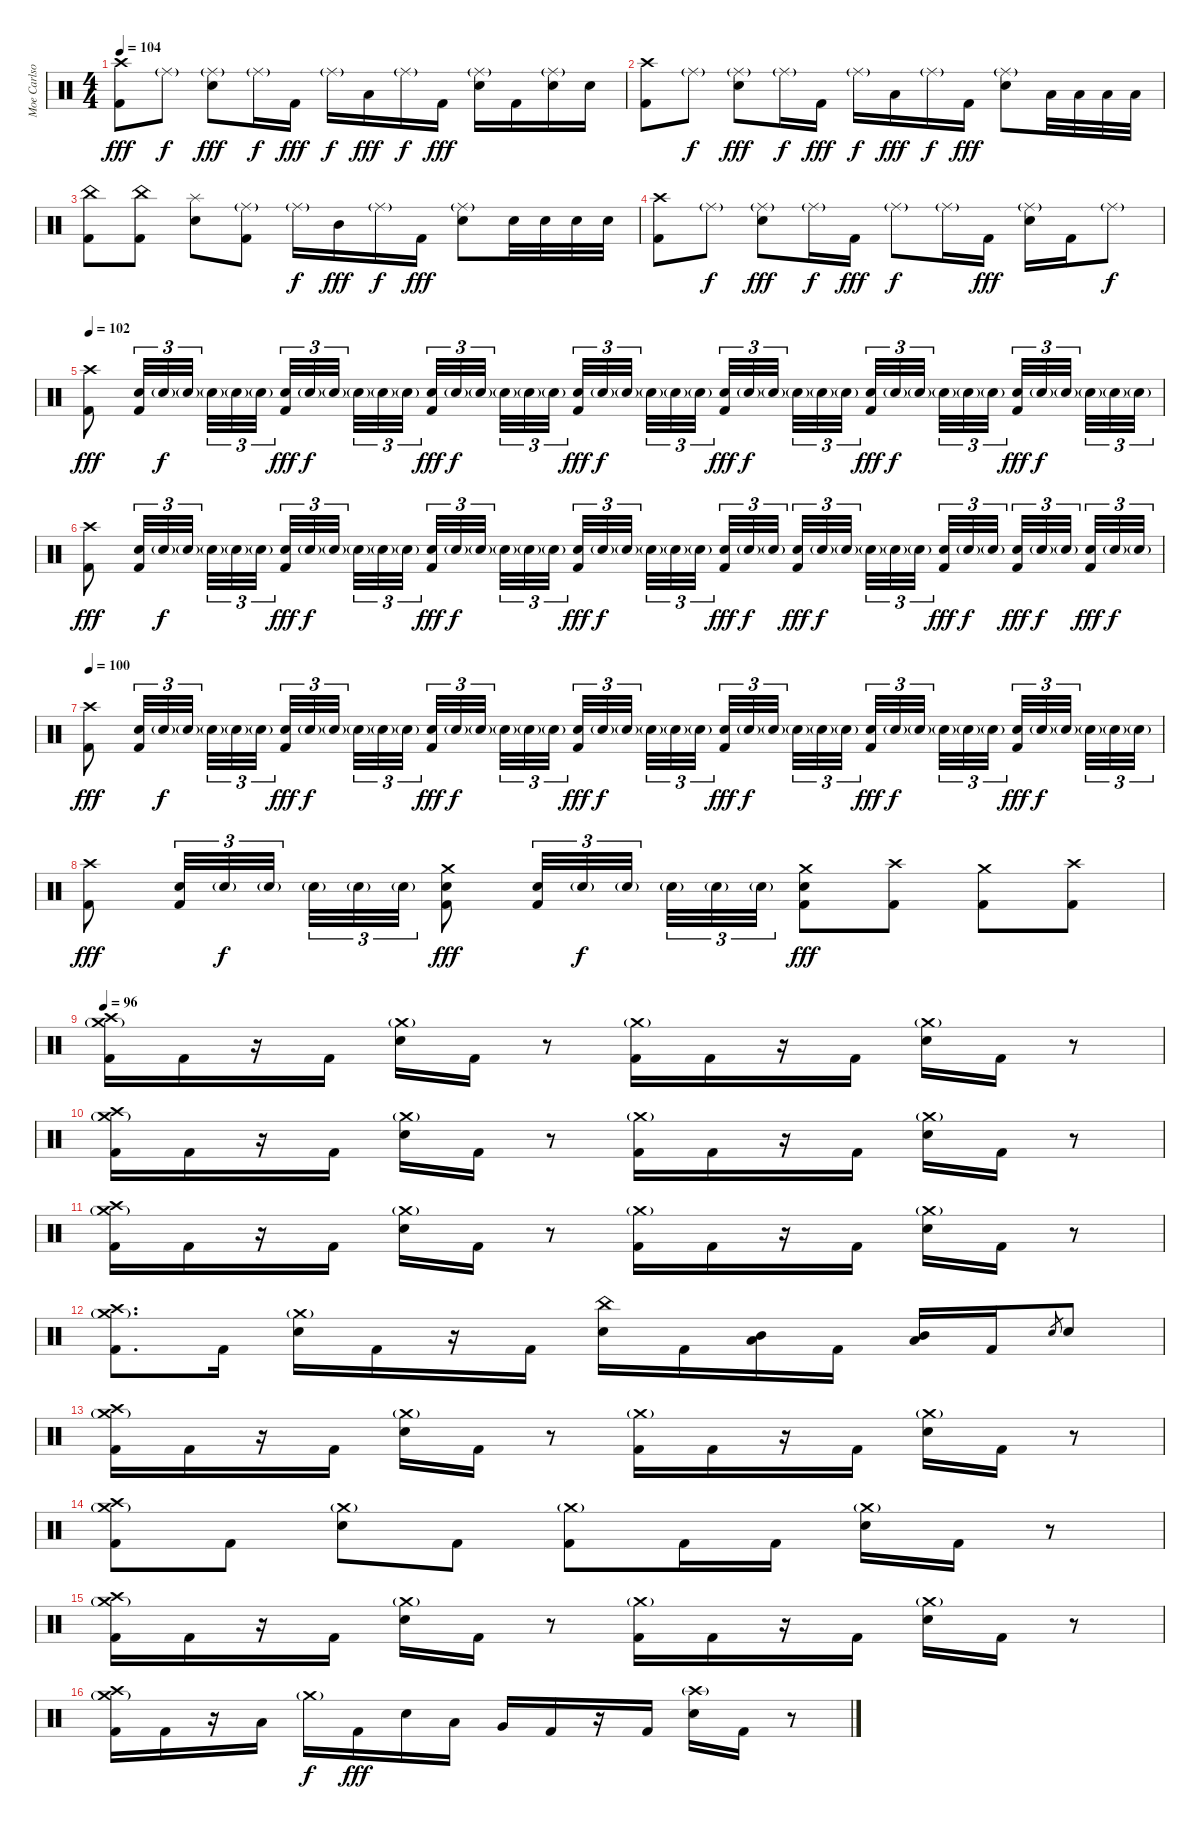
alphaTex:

\track ("Moe Carlson - Percussion" "Moe Carlso") {instrument percussion}
\staff {score}
\articulation defaults
\ts (4 4)
\tempo 104
\clef neutral
\ks c
("Crash high (hit)" "Kick (hit) 2").8{dy fff} "Ride (middle)"{g}.8{dy f} ("Ride (middle)"{g} "Electric Snare (hit)").8{dy fff} "Ride (middle)"{g}.16{dy f} "Kick (hit) 2".16{dy fff} "Ride (middle)"{g}.16{dy f} "Low Tom (hit)".16{dy fff} "Ride (middle)"{g}.16{dy f} "Kick (hit) 2".16{dy fff} ("Ride (middle)"{g} "Electric Snare (hit)").16 "Kick (hit) 2".16 ("Ride (middle)"{g} "Electric Snare (hit)").16 "Electric Snare (hit)".16 |
("Crash high (hit)" "Kick (hit) 2").8 "Ride (middle)"{g}.8{dy f} ("Ride (middle)"{g} "Electric Snare (hit)").8{dy fff} "Ride (middle)"{g}.16{dy f} "Kick (hit) 2".16{dy fff} "Ride (middle)"{g}.16{dy f} "Low Tom (hit)".16{dy fff} "Ride (middle)"{g}.16{dy f} "Kick (hit) 2".16{dy fff} ("Ride (middle)"{g} "Electric Snare (hit)").8 "Low Tom (hit)".32 "Low Tom (hit)".32 "Low Tom (hit)".32 "Low Tom (hit)".32 |
("China (hit)" "Kick (hit) 2").8 ("China (hit)" "Kick (hit) 2").8 ("Splash (hit)" "Electric Snare (hit)").8 ("Ride (middle)"{g} "Kick (hit) 2").8 "Ride (middle)"{g}.16{dy f} "Mid Tom (hit)".16{dy fff} "Ride (middle)"{g}.16{dy f} "Kick (hit) 2".16{dy fff} ("Ride (middle)"{g} "Electric Snare (hit)").8 "Electric Snare (hit)".32 "Electric Snare (hit)".32 "Electric Snare (hit)".32 "Electric Snare (hit)".32 |
("Crash high (hit)" "Kick (hit) 2").8 "Ride (middle)"{g}.8{dy f} ("Ride (middle)"{g} "Electric Snare (hit)").8{dy fff} "Ride (middle)"{g}.16{dy f} "Kick (hit) 2".16{dy fff} "Ride (middle)"{g}.8{dy f} "Ride (middle)"{g}.16 "Kick (hit) 2".16{dy fff} ("Ride (middle)"{g} "Electric Snare (hit)").16 "Kick (hit) 2".16 "Ride (middle)"{g}.8{dy f} |
\tempo 102
("Crash high (hit)" "Kick (hit) 2").8{dy fff} ("Electric Snare (hit)" "Kick (hit) 2").32{tu (3 2)} "Electric Snare (hit)"{g}.32{tu (3 2) dy f} "Electric Snare (hit)"{g}.32{tu (3 2) beam splitsecondary} "Electric Snare (hit)"{g}.32{tu (3 2)} "Electric Snare (hit)"{g}.32{tu (3 2)} "Electric Snare (hit)"{g}.32{tu (3 2)} ("Electric Snare (hit)" "Kick (hit) 2").32{tu (3 2) dy fff} "Electric Snare (hit)"{g}.32{tu (3 2) dy f} "Electric Snare (hit)"{g}.32{tu (3 2) beam splitsecondary} "Electric Snare (hit)"{g}.32{tu (3 2)} "Electric Snare (hit)"{g}.32{tu (3 2)} "Electric Snare (hit)"{g}.32{tu (3 2) beam splitsecondary} ("Electric Snare (hit)" "Kick (hit) 2").32{tu (3 2) dy fff} "Electric Snare (hit)"{g}.32{tu (3 2) dy f} "Electric Snare (hit)"{g}.32{tu (3 2) beam splitsecondary} "Electric Snare (hit)"{g}.32{tu (3 2)} "Electric Snare (hit)"{g}.32{tu (3 2)} "Electric Snare (hit)"{g}.32{tu (3 2)} ("Electric Snare (hit)" "Kick (hit) 2").32{tu (3 2) dy fff} "Electric Snare (hit)"{g}.32{tu (3 2) dy f} "Electric Snare (hit)"{g}.32{tu (3 2) beam splitsecondary} "Electric Snare (hit)"{g}.32{tu (3 2)} "Electric Snare (hit)"{g}.32{tu (3 2)} "Electric Snare (hit)"{g}.32{tu (3 2) beam splitsecondary} ("Electric Snare (hit)" "Kick (hit) 2").32{tu (3 2) dy fff} "Electric Snare (hit)"{g}.32{tu (3 2) dy f} "Electric Snare (hit)"{g}.32{tu (3 2) beam splitsecondary} "Electric Snare (hit)"{g}.32{tu (3 2)} "Electric Snare (hit)"{g}.32{tu (3 2)} "Electric Snare (hit)"{g}.32{tu (3 2)} ("Electric Snare (hit)" "Kick (hit) 2").32{tu (3 2) dy fff} "Electric Snare (hit)"{g}.32{tu (3 2) dy f} "Electric Snare (hit)"{g}.32{tu (3 2) beam splitsecondary} "Electric Snare (hit)"{g}.32{tu (3 2)} "Electric Snare (hit)"{g}.32{tu (3 2)} "Electric Snare (hit)"{g}.32{tu (3 2) beam splitsecondary} ("Electric Snare (hit)" "Kick (hit) 2").32{tu (3 2) dy fff} "Electric Snare (hit)"{g}.32{tu (3 2) dy f} "Electric Snare (hit)"{g}.32{tu (3 2) beam splitsecondary} "Electric Snare (hit)"{g}.32{tu (3 2)} "Electric Snare (hit)"{g}.32{tu (3 2)} "Electric Snare (hit)"{g}.32{tu (3 2)} |
("Crash high (hit)" "Kick (hit) 2").8{dy fff} ("Electric Snare (hit)" "Kick (hit) 2").32{tu (3 2)} "Electric Snare (hit)"{g}.32{tu (3 2) dy f} "Electric Snare (hit)"{g}.32{tu (3 2) beam splitsecondary} "Electric Snare (hit)"{g}.32{tu (3 2)} "Electric Snare (hit)"{g}.32{tu (3 2)} "Electric Snare (hit)"{g}.32{tu (3 2)} ("Electric Snare (hit)" "Kick (hit) 2").32{tu (3 2) dy fff} "Electric Snare (hit)"{g}.32{tu (3 2) dy f} "Electric Snare (hit)"{g}.32{tu (3 2) beam splitsecondary} "Electric Snare (hit)"{g}.32{tu (3 2)} "Electric Snare (hit)"{g}.32{tu (3 2)} "Electric Snare (hit)"{g}.32{tu (3 2) beam splitsecondary} ("Electric Snare (hit)" "Kick (hit) 2").32{tu (3 2) dy fff} "Electric Snare (hit)"{g}.32{tu (3 2) dy f} "Electric Snare (hit)"{g}.32{tu (3 2) beam splitsecondary} "Electric Snare (hit)"{g}.32{tu (3 2)} "Electric Snare (hit)"{g}.32{tu (3 2)} "Electric Snare (hit)"{g}.32{tu (3 2)} ("Electric Snare (hit)" "Kick (hit) 2").32{tu (3 2) dy fff} "Electric Snare (hit)"{g}.32{tu (3 2) dy f} "Electric Snare (hit)"{g}.32{tu (3 2) beam splitsecondary} "Electric Snare (hit)"{g}.32{tu (3 2)} "Electric Snare (hit)"{g}.32{tu (3 2)} "Electric Snare (hit)"{g}.32{tu (3 2) beam splitsecondary} ("Electric Snare (hit)" "Kick (hit) 2").32{tu (3 2) dy fff} "Electric Snare (hit)"{g}.32{tu (3 2) dy f} "Electric Snare (hit)"{g}.32{tu (3 2) beam splitsecondary} ("Electric Snare (hit)" "Kick (hit) 2").32{tu (3 2) dy fff} "Electric Snare (hit)"{g}.32{tu (3 2) dy f} "Electric Snare (hit)"{g}.32{tu (3 2)} "Electric Snare (hit)"{g}.32{tu (3 2)} "Electric Snare (hit)"{g}.32{tu (3 2)} "Electric Snare (hit)"{g}.32{tu (3 2) beam splitsecondary} ("Electric Snare (hit)" "Kick (hit) 2").32{tu (3 2) dy fff} "Electric Snare (hit)"{g}.32{tu (3 2) dy f} "Electric Snare (hit)"{g}.32{tu (3 2) beam splitsecondary} ("Electric Snare (hit)" "Kick (hit) 2").32{tu (3 2) dy fff} "Electric Snare (hit)"{g}.32{tu (3 2) dy f} "Electric Snare (hit)"{g}.32{tu (3 2) beam splitsecondary} ("Electric Snare (hit)" "Kick (hit) 2").32{tu (3 2) dy fff} "Electric Snare (hit)"{g}.32{tu (3 2) dy f} "Electric Snare (hit)"{g}.32{tu (3 2)} |
\tempo 100
("Crash high (hit)" "Kick (hit) 2").8{dy fff} ("Electric Snare (hit)" "Kick (hit) 2").32{tu (3 2)} "Electric Snare (hit)"{g}.32{tu (3 2) dy f} "Electric Snare (hit)"{g}.32{tu (3 2) beam splitsecondary} "Electric Snare (hit)"{g}.32{tu (3 2)} "Electric Snare (hit)"{g}.32{tu (3 2)} "Electric Snare (hit)"{g}.32{tu (3 2)} ("Electric Snare (hit)" "Kick (hit) 2").32{tu (3 2) dy fff} "Electric Snare (hit)"{g}.32{tu (3 2) dy f} "Electric Snare (hit)"{g}.32{tu (3 2) beam splitsecondary} "Electric Snare (hit)"{g}.32{tu (3 2)} "Electric Snare (hit)"{g}.32{tu (3 2)} "Electric Snare (hit)"{g}.32{tu (3 2) beam splitsecondary} ("Electric Snare (hit)" "Kick (hit) 2").32{tu (3 2) dy fff} "Electric Snare (hit)"{g}.32{tu (3 2) dy f} "Electric Snare (hit)"{g}.32{tu (3 2) beam splitsecondary} "Electric Snare (hit)"{g}.32{tu (3 2)} "Electric Snare (hit)"{g}.32{tu (3 2)} "Electric Snare (hit)"{g}.32{tu (3 2)} ("Electric Snare (hit)" "Kick (hit) 2").32{tu (3 2) dy fff} "Electric Snare (hit)"{g}.32{tu (3 2) dy f} "Electric Snare (hit)"{g}.32{tu (3 2) beam splitsecondary} "Electric Snare (hit)"{g}.32{tu (3 2)} "Electric Snare (hit)"{g}.32{tu (3 2)} "Electric Snare (hit)"{g}.32{tu (3 2) beam splitsecondary} ("Electric Snare (hit)" "Kick (hit) 2").32{tu (3 2) dy fff} "Electric Snare (hit)"{g}.32{tu (3 2) dy f} "Electric Snare (hit)"{g}.32{tu (3 2) beam splitsecondary} "Electric Snare (hit)"{g}.32{tu (3 2)} "Electric Snare (hit)"{g}.32{tu (3 2)} "Electric Snare (hit)"{g}.32{tu (3 2)} ("Electric Snare (hit)" "Kick (hit) 2").32{tu (3 2) dy fff} "Electric Snare (hit)"{g}.32{tu (3 2) dy f} "Electric Snare (hit)"{g}.32{tu (3 2) beam splitsecondary} "Electric Snare (hit)"{g}.32{tu (3 2)} "Electric Snare (hit)"{g}.32{tu (3 2)} "Electric Snare (hit)"{g}.32{tu (3 2) beam splitsecondary} ("Electric Snare (hit)" "Kick (hit) 2").32{tu (3 2) dy fff} "Electric Snare (hit)"{g}.32{tu (3 2) dy f} "Electric Snare (hit)"{g}.32{tu (3 2) beam splitsecondary} "Electric Snare (hit)"{g}.32{tu (3 2)} "Electric Snare (hit)"{g}.32{tu (3 2)} "Electric Snare (hit)"{g}.32{tu (3 2)} |
("Crash high (hit)" "Kick (hit) 2").8{dy fff} ("Electric Snare (hit)" "Kick (hit) 2").32{tu (3 2)} "Electric Snare (hit)"{g}.32{tu (3 2) dy f} "Electric Snare (hit)"{g}.32{tu (3 2) beam splitsecondary} "Electric Snare (hit)"{g}.32{tu (3 2)} "Electric Snare (hit)"{g}.32{tu (3 2)} "Electric Snare (hit)"{g}.32{tu (3 2)} ("Crash medium (hit)" "Electric Snare (hit)" "Kick (hit) 2").8{dy fff} ("Electric Snare (hit)" "Kick (hit) 2").32{tu (3 2)} "Electric Snare (hit)"{g}.32{tu (3 2) dy f} "Electric Snare (hit)"{g}.32{tu (3 2) beam splitsecondary} "Electric Snare (hit)"{g}.32{tu (3 2)} "Electric Snare (hit)"{g}.32{tu (3 2)} "Electric Snare (hit)"{g}.32{tu (3 2)} ("Crash medium (hit)" "Electric Snare (hit)" "Kick (hit) 2").8{dy fff} ("Crash high (hit)" "Kick (hit) 2").8 ("Crash medium (hit)" "Kick (hit) 2").8 ("Crash high (hit)" "Kick (hit) 2").8 |
\tempo 96
("Crash medium (hit)"{g} "Crash high (hit)" "Kick (hit) 2").16 "Kick (hit) 2".16 r.16 "Kick (hit) 2".16 ("Crash medium (hit)"{g} "Electric Snare (hit)").16 "Kick (hit) 2".16 r.8 ("Crash medium (hit)"{g} "Kick (hit) 2").16 "Kick (hit) 2".16 r.16 "Kick (hit) 2".16 ("Crash medium (hit)"{g} "Electric Snare (hit)").16 "Kick (hit) 2".16 r.8 |
("Crash medium (hit)"{g} "Crash high (hit)" "Kick (hit) 2").16 "Kick (hit) 2".16 r.16 "Kick (hit) 2".16 ("Crash medium (hit)"{g} "Electric Snare (hit)").16 "Kick (hit) 2".16 r.8 ("Crash medium (hit)"{g} "Kick (hit) 2").16 "Kick (hit) 2".16 r.16 "Kick (hit) 2".16 ("Crash medium (hit)"{g} "Electric Snare (hit)").16 "Kick (hit) 2".16 r.8 |
("Crash medium (hit)"{g} "Crash high (hit)" "Kick (hit) 2").16 "Kick (hit) 2".16 r.16 "Kick (hit) 2".16 ("Crash medium (hit)"{g} "Electric Snare (hit)").16 "Kick (hit) 2".16 r.8 ("Crash medium (hit)"{g} "Kick (hit) 2").16 "Kick (hit) 2".16 r.16 "Kick (hit) 2".16 ("Crash medium (hit)"{g} "Electric Snare (hit)").16 "Kick (hit) 2".16 r.8 |
("Crash medium (hit)"{g} "Crash high (hit)" "Kick (hit) 2").8{d} "Kick (hit) 2".16 ("Crash medium (hit)"{g} "Electric Snare (hit)").16 "Kick (hit) 2".16 r.16 "Kick (hit) 2".16 ("China (hit)" "Electric Snare (hit)").16 "Kick (hit) 2".16 ("Mid Tom (hit)" "Low Floor Tom (hit)").16 "Kick (hit) 2".16 ("Mid Tom (hit)" "Low Floor Tom (hit)").16 "Kick (hit) 2".16 "Electric Snare (hit)".8{gr} "Electric Snare (hit)".8 |
("Crash medium (hit)"{g} "Crash high (hit)" "Kick (hit) 2").16 "Kick (hit) 2".16 r.16 "Kick (hit) 2".16 ("Crash medium (hit)"{g} "Electric Snare (hit)").16 "Kick (hit) 2".16 r.8 ("Crash medium (hit)"{g} "Kick (hit) 2").16 "Kick (hit) 2".16 r.16 "Kick (hit) 2".16 ("Crash medium (hit)"{g} "Electric Snare (hit)").16 "Kick (hit) 2".16 r.8 |
("Crash medium (hit)"{g} "Crash high (hit)" "Kick (hit) 2").8 "Kick (hit) 2".8 ("Crash medium (hit)"{g} "Electric Snare (hit)").8 "Kick (hit) 2".8 ("Crash medium (hit)"{g} "Kick (hit) 2").8 "Kick (hit) 2".16 "Kick (hit) 2".16 ("Crash medium (hit)"{g} "Electric Snare (hit)").16 "Kick (hit) 2".16 r.8 |
("Crash medium (hit)"{g} "Crash high (hit)" "Kick (hit) 2").16 "Kick (hit) 2".16 r.16 "Kick (hit) 2".16 ("Crash medium (hit)"{g} "Electric Snare (hit)").16 "Kick (hit) 2".16 r.8 ("Crash medium (hit)"{g} "Kick (hit) 2").16 "Kick (hit) 2".16 r.16 "Kick (hit) 2".16 ("Crash medium (hit)"{g} "Electric Snare (hit)").16 "Kick (hit) 2".16 r.8 |
("Crash medium (hit)"{g} "Crash high (hit)" "Kick (hit) 2").16 "Kick (hit) 2".16 r.16 "Low Tom (hit)".16 "Crash medium (hit)"{g}.16{dy f} "Kick (hit) 2".16{dy fff} "Electric Snare (hit)".16 "Low Tom (hit)".16 "Very Low Tom (hit)".16 "Kick (hit) 2".16 r.16 "Kick (hit) 2".16 ("Crash high (hit)"{g} "Electric Snare (hit)").16 "Kick (hit) 2".16 r.8
